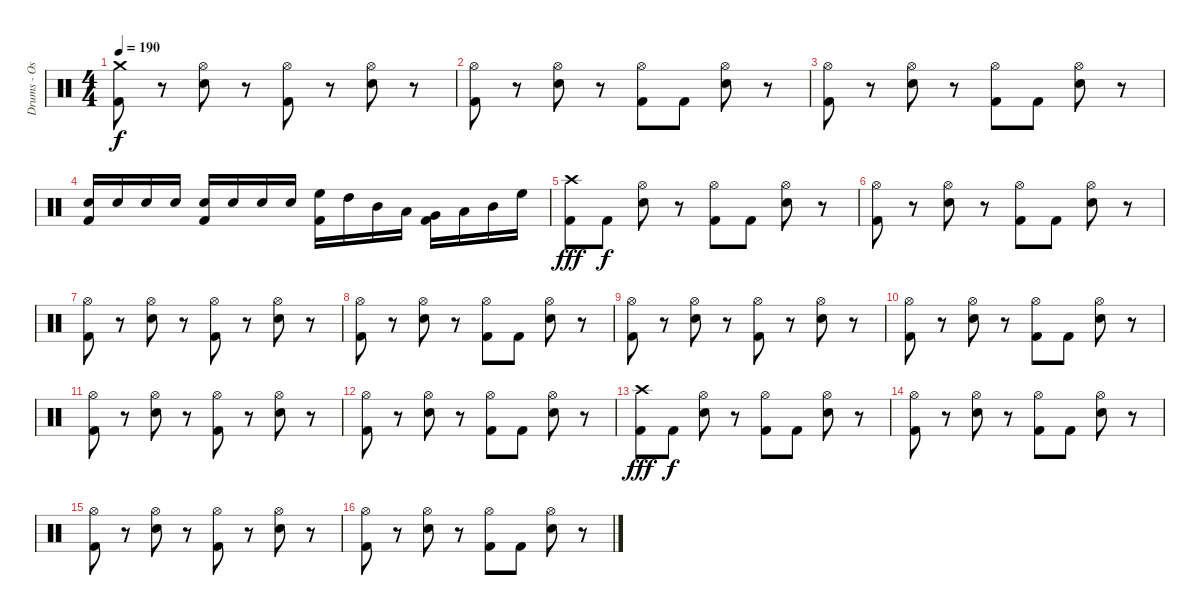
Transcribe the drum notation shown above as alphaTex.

\track ("Drums - Oskar Karlsson" "Drums - Os") {instrument percussion}
\staff {score}
\articulation defaults
\ts (4 4)
\tempo 190
\clef neutral
\ks c
("Crash medium (hit)" "Kick (hit) 2").8{dy f} r.8 ("Hi-Hat (open)" "Electric Snare (hit)").8 r.8 ("Hi-Hat (open)" "Kick (hit) 2").8 r.8 ("Hi-Hat (open)" "Electric Snare (hit)").8 r.8 |
("Hi-Hat (open)" "Kick (hit) 2").8 r.8 ("Hi-Hat (open)" "Electric Snare (hit)").8 r.8 ("Hi-Hat (open)" "Kick (hit) 2").8 "Kick (hit) 2".8 ("Hi-Hat (open)" "Electric Snare (hit)").8 r.8 |
("Hi-Hat (open)" "Kick (hit) 2").8 r.8 ("Hi-Hat (open)" "Electric Snare (hit)").8 r.8 ("Hi-Hat (open)" "Kick (hit) 2").8 "Kick (hit) 2".8 ("Hi-Hat (open)" "Electric Snare (hit)").8 r.8 |
("Electric Snare (hit)" "Kick (hit) 2").16 "Electric Snare (hit)".16 "Electric Snare (hit)".16 "Electric Snare (hit)".16 ("Electric Snare (hit)" "Kick (hit) 2").16 "Electric Snare (hit)".16 "Electric Snare (hit)".16 "Electric Snare (hit)".16 ("High Floor Tom (hit)" "Kick (hit) 2").16 "High Tom (hit)".16 "Mid Tom (hit)".16 "Low Tom (hit)".16 ("Very Low Tom (hit)" "Kick (hit) 2").16 "Low Tom (hit)".16 "Mid Tom (hit)".16 "High Floor Tom (hit)".16 |
("Crash high (hit)" "Kick (hit) 2").8{dy fff} "Kick (hit) 2".8{dy f} ("Hi-Hat (open)" "Electric Snare (hit)").8 r.8 ("Hi-Hat (open)" "Kick (hit) 2").8 "Kick (hit) 2".8 ("Hi-Hat (open)" "Electric Snare (hit)").8 r.8 |
("Hi-Hat (open)" "Kick (hit) 2").8 r.8 ("Hi-Hat (open)" "Electric Snare (hit)").8 r.8 ("Hi-Hat (open)" "Kick (hit) 2").8 "Kick (hit) 2".8 ("Hi-Hat (open)" "Electric Snare (hit)").8 r.8 |
("Hi-Hat (open)" "Kick (hit) 2").8 r.8 ("Hi-Hat (open)" "Electric Snare (hit)").8 r.8 ("Hi-Hat (open)" "Kick (hit) 2").8 r.8 ("Hi-Hat (open)" "Electric Snare (hit)").8 r.8 |
("Hi-Hat (open)" "Kick (hit) 2").8 r.8 ("Hi-Hat (open)" "Electric Snare (hit)").8 r.8 ("Hi-Hat (open)" "Kick (hit) 2").8 "Kick (hit) 2".8 ("Hi-Hat (open)" "Electric Snare (hit)").8 r.8 |
("Hi-Hat (open)" "Kick (hit) 2").8 r.8 ("Hi-Hat (open)" "Electric Snare (hit)").8 r.8 ("Hi-Hat (open)" "Kick (hit) 2").8 r.8 ("Hi-Hat (open)" "Electric Snare (hit)").8 r.8 |
("Hi-Hat (open)" "Kick (hit) 2").8 r.8 ("Hi-Hat (open)" "Electric Snare (hit)").8 r.8 ("Hi-Hat (open)" "Kick (hit) 2").8 "Kick (hit) 2".8 ("Hi-Hat (open)" "Electric Snare (hit)").8 r.8 |
("Hi-Hat (open)" "Kick (hit) 2").8 r.8 ("Hi-Hat (open)" "Electric Snare (hit)").8 r.8 ("Hi-Hat (open)" "Kick (hit) 2").8 r.8 ("Hi-Hat (open)" "Electric Snare (hit)").8 r.8 |
("Hi-Hat (open)" "Kick (hit) 2").8 r.8 ("Hi-Hat (open)" "Electric Snare (hit)").8 r.8 ("Hi-Hat (open)" "Kick (hit) 2").8 "Kick (hit) 2".8 ("Hi-Hat (open)" "Electric Snare (hit)").8 r.8 |
("Crash high (hit)" "Kick (hit) 2").8{dy fff} "Kick (hit) 2".8{dy f} ("Hi-Hat (open)" "Electric Snare (hit)").8 r.8 ("Hi-Hat (open)" "Kick (hit) 2").8 "Kick (hit) 2".8 ("Hi-Hat (open)" "Electric Snare (hit)").8 r.8 |
("Hi-Hat (open)" "Kick (hit) 2").8 r.8 ("Hi-Hat (open)" "Electric Snare (hit)").8 r.8 ("Hi-Hat (open)" "Kick (hit) 2").8 "Kick (hit) 2".8 ("Hi-Hat (open)" "Electric Snare (hit)").8 r.8 |
("Hi-Hat (open)" "Kick (hit) 2").8 r.8 ("Hi-Hat (open)" "Electric Snare (hit)").8 r.8 ("Hi-Hat (open)" "Kick (hit) 2").8 r.8 ("Hi-Hat (open)" "Electric Snare (hit)").8 r.8 |
("Hi-Hat (open)" "Kick (hit) 2").8 r.8 ("Hi-Hat (open)" "Electric Snare (hit)").8 r.8 ("Hi-Hat (open)" "Kick (hit) 2").8 "Kick (hit) 2".8 ("Hi-Hat (open)" "Electric Snare (hit)").8 r.8
